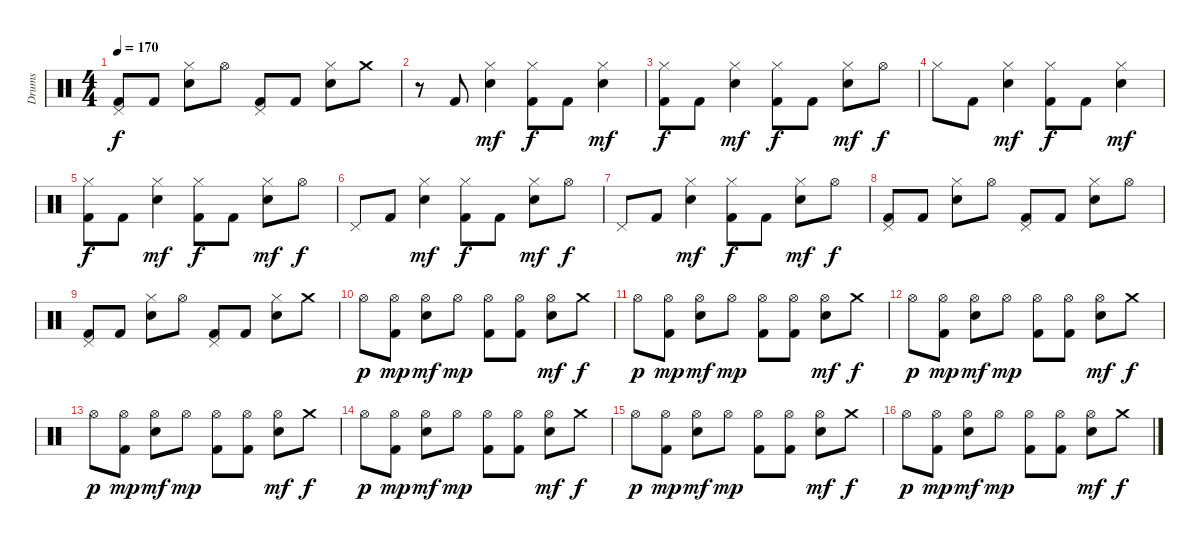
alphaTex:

\track ("Drums" "Drums") {instrument percussion}
\staff {score}
\articulation defaults
\ts (4 4)
\tempo 170
\clef neutral
\ks c
("Pedal Hi-Hat (hit)" "Kick (hit) 2").8{dy f} "Kick (hit) 2".8 ("Hi-Hat (closed)" "Electric Snare (hit)").8 "Hi-Hat (open)".8 ("Pedal Hi-Hat (hit)" "Kick (hit) 2").8 "Kick (hit) 2".8 ("Hi-Hat (closed)" "Electric Snare (hit)").8 "Crash medium (hit)".8 |
r.8 "Kick (hit) 2".8 ("Hi-Hat (closed)" "Electric Snare (hit)").4{dy mf} ("Hi-Hat (closed)" "Kick (hit) 2").8{dy f} "Kick (hit) 2".8 ("Hi-Hat (closed)" "Electric Snare (hit)").4{dy mf} |
("Hi-Hat (closed)" "Kick (hit) 2").8{dy f} "Kick (hit) 2".8 ("Hi-Hat (closed)" "Electric Snare (hit)").4{dy mf} ("Hi-Hat (closed)" "Kick (hit) 2").8{dy f} "Kick (hit) 2".8 ("Hi-Hat (closed)" "Electric Snare (hit)").8{dy mf} "Hi-Hat (open)".8{dy f} |
"Hi-Hat (closed)".8 "Kick (hit) 2".8 ("Hi-Hat (closed)" "Electric Snare (hit)").4{dy mf} ("Hi-Hat (closed)" "Kick (hit) 2").8{dy f} "Kick (hit) 2".8 ("Hi-Hat (closed)" "Electric Snare (hit)").4{dy mf} |
("Hi-Hat (closed)" "Kick (hit) 2").8{dy f} "Kick (hit) 2".8 ("Hi-Hat (closed)" "Electric Snare (hit)").4{dy mf} ("Hi-Hat (closed)" "Kick (hit) 2").8{dy f} "Kick (hit) 2".8 ("Hi-Hat (closed)" "Electric Snare (hit)").8{dy mf} "Hi-Hat (open)".8{dy f} |
"Pedal Hi-Hat (hit)".8 "Kick (hit) 2".8 ("Hi-Hat (closed)" "Electric Snare (hit)").4{dy mf} ("Hi-Hat (closed)" "Kick (hit) 2").8{dy f} "Kick (hit) 2".8 ("Hi-Hat (closed)" "Electric Snare (hit)").8{dy mf} "Hi-Hat (open)".8{dy f} |
"Pedal Hi-Hat (hit)".8 "Kick (hit) 2".8 ("Hi-Hat (closed)" "Electric Snare (hit)").4{dy mf} ("Hi-Hat (closed)" "Kick (hit) 2").8{dy f} "Kick (hit) 2".8 ("Hi-Hat (closed)" "Electric Snare (hit)").8{dy mf} "Hi-Hat (open)".8{dy f} |
("Pedal Hi-Hat (hit)" "Kick (hit) 2").8 "Kick (hit) 2".8 ("Hi-Hat (closed)" "Electric Snare (hit)").8 "Hi-Hat (open)".8 ("Pedal Hi-Hat (hit)" "Kick (hit) 2").8 "Kick (hit) 2".8 ("Hi-Hat (closed)" "Electric Snare (hit)").8 "Hi-Hat (open)".8 |
("Pedal Hi-Hat (hit)" "Kick (hit) 2").8 "Kick (hit) 2".8 ("Hi-Hat (closed)" "Electric Snare (hit)").8 "Hi-Hat (open)".8 ("Pedal Hi-Hat (hit)" "Kick (hit) 2").8 "Kick (hit) 2".8 ("Hi-Hat (closed)" "Electric Snare (hit)").8 "Crash medium (hit)".8 |
"Hi-Hat (open)".8{dy p} ("Hi-Hat (open)" "Kick (hit) 2").8{dy mp} ("Hi-Hat (open)" "Electric Snare (hit)").8{dy mf} "Hi-Hat (open)".8{dy mp} ("Hi-Hat (open)" "Kick (hit) 2").8 ("Hi-Hat (open)" "Kick (hit) 2").8 ("Hi-Hat (open)" "Electric Snare (hit)").8{dy mf} "Crash medium (hit)".8{dy f} |
"Hi-Hat (open)".8{dy p} ("Hi-Hat (open)" "Kick (hit) 2").8{dy mp} ("Hi-Hat (open)" "Electric Snare (hit)").8{dy mf} "Hi-Hat (open)".8{dy mp} ("Hi-Hat (open)" "Kick (hit) 2").8 ("Hi-Hat (open)" "Kick (hit) 2").8 ("Hi-Hat (open)" "Electric Snare (hit)").8{dy mf} "Crash medium (hit)".8{dy f} |
"Hi-Hat (open)".8{dy p} ("Hi-Hat (open)" "Kick (hit) 2").8{dy mp} ("Hi-Hat (open)" "Electric Snare (hit)").8{dy mf} "Hi-Hat (open)".8{dy mp} ("Hi-Hat (open)" "Kick (hit) 2").8 ("Hi-Hat (open)" "Kick (hit) 2").8 ("Hi-Hat (open)" "Electric Snare (hit)").8{dy mf} "Crash medium (hit)".8{dy f} |
"Hi-Hat (open)".8{dy p} ("Hi-Hat (open)" "Kick (hit) 2").8{dy mp} ("Hi-Hat (open)" "Electric Snare (hit)").8{dy mf} "Hi-Hat (open)".8{dy mp} ("Hi-Hat (open)" "Kick (hit) 2").8 ("Hi-Hat (open)" "Kick (hit) 2").8 ("Hi-Hat (open)" "Electric Snare (hit)").8{dy mf} "Crash medium (hit)".8{dy f} |
"Hi-Hat (open)".8{dy p} ("Hi-Hat (open)" "Kick (hit) 2").8{dy mp} ("Hi-Hat (open)" "Electric Snare (hit)").8{dy mf} "Hi-Hat (open)".8{dy mp} ("Hi-Hat (open)" "Kick (hit) 2").8 ("Hi-Hat (open)" "Kick (hit) 2").8 ("Hi-Hat (open)" "Electric Snare (hit)").8{dy mf} "Crash medium (hit)".8{dy f} |
"Hi-Hat (open)".8{dy p} ("Hi-Hat (open)" "Kick (hit) 2").8{dy mp} ("Hi-Hat (open)" "Electric Snare (hit)").8{dy mf} "Hi-Hat (open)".8{dy mp} ("Hi-Hat (open)" "Kick (hit) 2").8 ("Hi-Hat (open)" "Kick (hit) 2").8 ("Hi-Hat (open)" "Electric Snare (hit)").8{dy mf} "Crash medium (hit)".8{dy f} |
"Hi-Hat (open)".8{dy p} ("Hi-Hat (open)" "Kick (hit) 2").8{dy mp} ("Hi-Hat (open)" "Electric Snare (hit)").8{dy mf} "Hi-Hat (open)".8{dy mp} ("Hi-Hat (open)" "Kick (hit) 2").8 ("Hi-Hat (open)" "Kick (hit) 2").8 ("Hi-Hat (open)" "Electric Snare (hit)").8{dy mf} "Crash medium (hit)".8{dy f}
